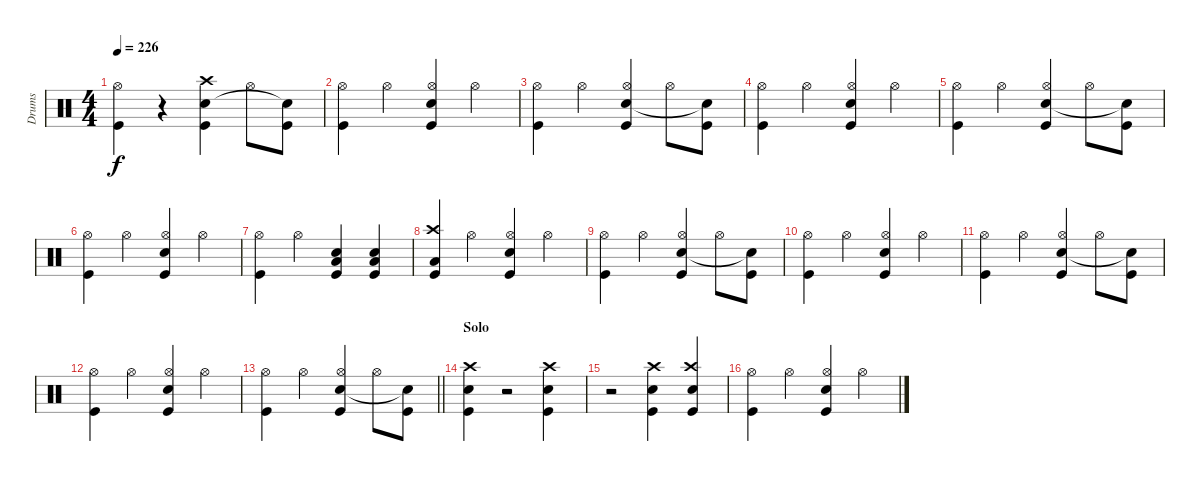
\track ("Drums" "Drums") {instrument percussion}
\staff {score}
\articulation defaults
\ts (4 4)
\tempo 226
\clef neutral
\ks c
("Kick (hit)" "Hi-Hat (open)").4{dy f} r.4 ("Kick (hit)" "Snare (hit) 2" "Crash high (hit)").4 "Hi-Hat (open)".8 ("Kick (hit)" "Snare (hit)"{t}).8 |
("Kick (hit)" "Hi-Hat (open)").4 "Hi-Hat (open)".4 ("Kick (hit)" "Snare (hit) 2" "Hi-Hat (open)").4 "Hi-Hat (open)".4 |
("Kick (hit)" "Hi-Hat (open)").4 "Hi-Hat (open)".4 ("Kick (hit)" "Snare (hit) 2" "Hi-Hat (open)").4 "Hi-Hat (open)".8 ("Kick (hit)" "Snare (hit)"{t}).8 |
("Kick (hit)" "Hi-Hat (open)").4 "Hi-Hat (open)".4 ("Kick (hit)" "Snare (hit) 2" "Hi-Hat (open)").4 "Hi-Hat (open)".4 |
("Kick (hit)" "Hi-Hat (open)").4 "Hi-Hat (open)".4 ("Kick (hit)" "Snare (hit) 2" "Hi-Hat (open)").4 "Hi-Hat (open)".8 ("Kick (hit)" "Snare (hit)"{t}).8 |
("Kick (hit)" "Hi-Hat (open)").4 "Hi-Hat (open)".4 ("Kick (hit)" "Snare (hit) 2" "Hi-Hat (open)").4 "Hi-Hat (open)".4 |
("Kick (hit)" "Hi-Hat (open)").4 "Hi-Hat (open)".4 ("Kick (hit)" "Snare (hit) 2" "Low Tom (hit)").4 ("Kick (hit)" "Electric Snare (hit)" "Low Tom (hit)").4 |
("Kick (hit)" "Low Tom (hit)" "Crash high (hit)").4 "Hi-Hat (open)".4 ("Kick (hit)" "Snare (hit) 2" "Hi-Hat (open)").4 "Hi-Hat (open)".4 |
("Kick (hit)" "Hi-Hat (open)").4 "Hi-Hat (open)".4 ("Kick (hit)" "Snare (hit) 2" "Hi-Hat (open)").4 "Hi-Hat (open)".8 ("Kick (hit)" "Snare (hit)"{t}).8 |
("Kick (hit)" "Hi-Hat (open)").4 "Hi-Hat (open)".4 ("Kick (hit)" "Snare (hit) 2" "Hi-Hat (open)").4 "Hi-Hat (open)".4 |
("Kick (hit)" "Hi-Hat (open)").4 "Hi-Hat (open)".4 ("Kick (hit)" "Snare (hit) 2" "Hi-Hat (open)").4 "Hi-Hat (open)".8 ("Kick (hit)" "Snare (hit)"{t}).8 |
("Kick (hit)" "Hi-Hat (open)").4 "Hi-Hat (open)".4 ("Kick (hit)" "Snare (hit) 2" "Hi-Hat (open)").4 "Hi-Hat (open)".4 |
\barLineRight lightlight
("Kick (hit)" "Hi-Hat (open)").4 "Hi-Hat (open)".4 ("Kick (hit)" "Snare (hit) 2" "Hi-Hat (open)").4 "Hi-Hat (open)".8 ("Kick (hit)" "Snare (hit)"{t}).8 |
\section ("" "Solo")
("Kick (hit)" "Snare (hit) 2" "Crash high (hit)").4 r.2 ("Kick (hit)" "Snare (hit) 2" "Crash high (hit)").4 |
r.2 ("Kick (hit)" "Snare (hit) 2" "Crash high (hit)").4 ("Kick (hit)" "Electric Snare (hit)" "Crash high (hit)").4 |
("Kick (hit)" "Hi-Hat (open)").4 "Hi-Hat (open)".4 ("Kick (hit)" "Snare (hit) 2" "Hi-Hat (open)").4 "Hi-Hat (open)".4
